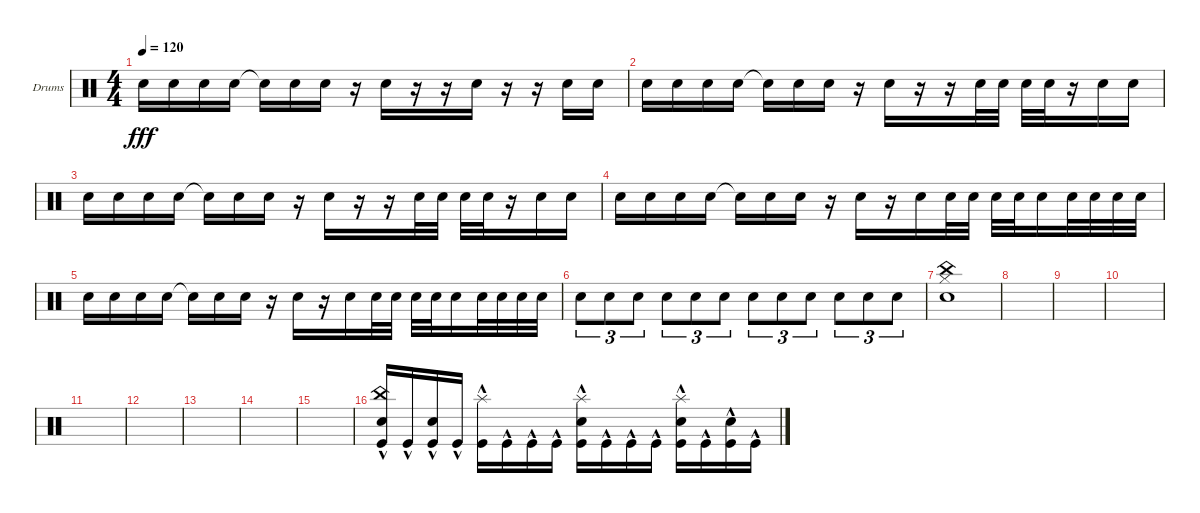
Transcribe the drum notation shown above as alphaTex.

\defaultSystemsLayout 4
\bracketExtendMode groupsimilarinstruments
\firstSystemTrackNameOrientation horizontal
\otherSystemsTrackNameOrientation horizontal
\track ("Drumkit" "Drums") {instrument percussion}
\staff {score}
\articulation defaults
\ts (4 4)
\tempo 120
\clef neutral
\ks c "Snare (hit) 2".16{dy fff} "Snare (hit) 2".16 "Snare (hit) 2".16 "Snare (hit) 2".16 "Snare (hit) 2"{t}.16 "Snare (hit) 2".16 "Snare (hit) 2".16
r.16 "Snare (hit) 2".16 r.16 r.16 "Snare (hit) 2".16 r.16 r.16 "Snare (hit) 2".16 "Snare (hit) 2".16 |
"Snare (hit) 2".16 "Snare (hit) 2".16 "Snare (hit) 2".16 "Snare (hit) 2".16 "Snare (hit) 2"{t}.16 "Snare (hit) 2".16 "Snare (hit) 2".16 r.16 "Snare (hit) 2".16 r.16 r.16 "Snare (hit) 2".32 "Snare (hit) 2".32 "Snare (hit) 2".32 "Snare (hit) 2".32 r.16 "Snare (hit) 2".16 "Snare (hit) 2".16 |
"Snare (hit) 2".16 "Snare (hit) 2".16 "Snare (hit) 2".16 "Snare (hit) 2".16 "Snare (hit) 2"{t}.16 "Snare (hit) 2".16 "Snare (hit) 2".16 r.16 "Snare (hit) 2".16 r.16 r.16 "Snare (hit) 2".32 "Snare (hit) 2".32 "Snare (hit) 2".32 "Snare (hit) 2".32 r.16 "Snare (hit) 2".16 "Snare (hit) 2".16 |
"Snare (hit) 2".16 "Snare (hit) 2".16 "Snare (hit) 2".16 "Snare (hit) 2".16 "Snare (hit) 2"{t}.16 "Snare (hit) 2".16 "Snare (hit) 2".16 r.16 "Snare (hit) 2".16 r.16 "Snare (hit) 2".16 "Snare (hit) 2".32 "Snare (hit) 2".32 "Snare (hit) 2".32 "Snare (hit) 2".32 "Snare (hit) 2".16 "Snare (hit) 2".32 "Snare (hit) 2".32 "Snare (hit) 2".32 "Snare (hit) 2".32 |
"Snare (hit) 2".16 "Snare (hit) 2".16 "Snare (hit) 2".16 "Snare (hit) 2".16 "Snare (hit) 2"{t}.16 "Snare (hit) 2".16 "Snare (hit) 2".16 r.16 "Snare (hit) 2".16 r.16 "Snare (hit) 2".16 "Snare (hit) 2".32 "Snare (hit) 2".32 "Snare (hit) 2".32 "Snare (hit) 2".32 "Snare (hit) 2".16 "Snare (hit) 2".32 "Snare (hit) 2".32 "Snare (hit) 2".32 "Snare (hit) 2".32 |
"Snare (hit) 2".8{tu (3 2)} "Snare (hit) 2".8{tu (3 2)} "Snare (hit) 2".8{tu (3 2)} "Snare (hit) 2".8{tu (3 2)} "Snare (hit) 2".8{tu (3 2)} "Snare (hit) 2".8{tu (3 2)} "Snare (hit) 2".8{tu (3 2)} "Snare (hit) 2".8{tu (3 2)} "Snare (hit) 2".8{tu (3 2)} "Snare (hit) 2".8{tu (3 2)} "Snare (hit) 2".8{tu (3 2)} "Snare (hit) 2".8{tu (3 2)} |
("Hi-Hat (closed)" "China (hit)" "Snare (hit) 2").1 |
|
|
|
|
|
|
|
|
("Kick (hit)"{hac} "Snare (hit) 2"{hac} "China (hit)"{hac}).16 "Kick (hit)"{hac}.16 ("Kick (hit)"{hac} "Snare (hit) 2"{hac}).16 "Kick (hit)"{hac}.16 ("Kick (hit)"{hac} "Splash (hit)"{hac}).16 "Kick (hit)"{hac}.16 "Kick (hit)"{hac}.16 "Kick (hit)"{hac}.16 ("Kick (hit)"{hac} "Snare (hit) 2"{hac} "Splash (hit)"{hac}).16 "Kick (hit)"{hac}.16 "Kick (hit)"{hac}.16 "Kick (hit)"{hac}.16 ("Kick (hit)"{hac} "Snare (hit) 2"{hac} "Splash (hit)"{hac}).16 "Kick (hit)"{hac}.16 ("Kick (hit)"{hac} "Snare (hit) 2"{hac}).16 "Kick (hit)"{hac}.16
